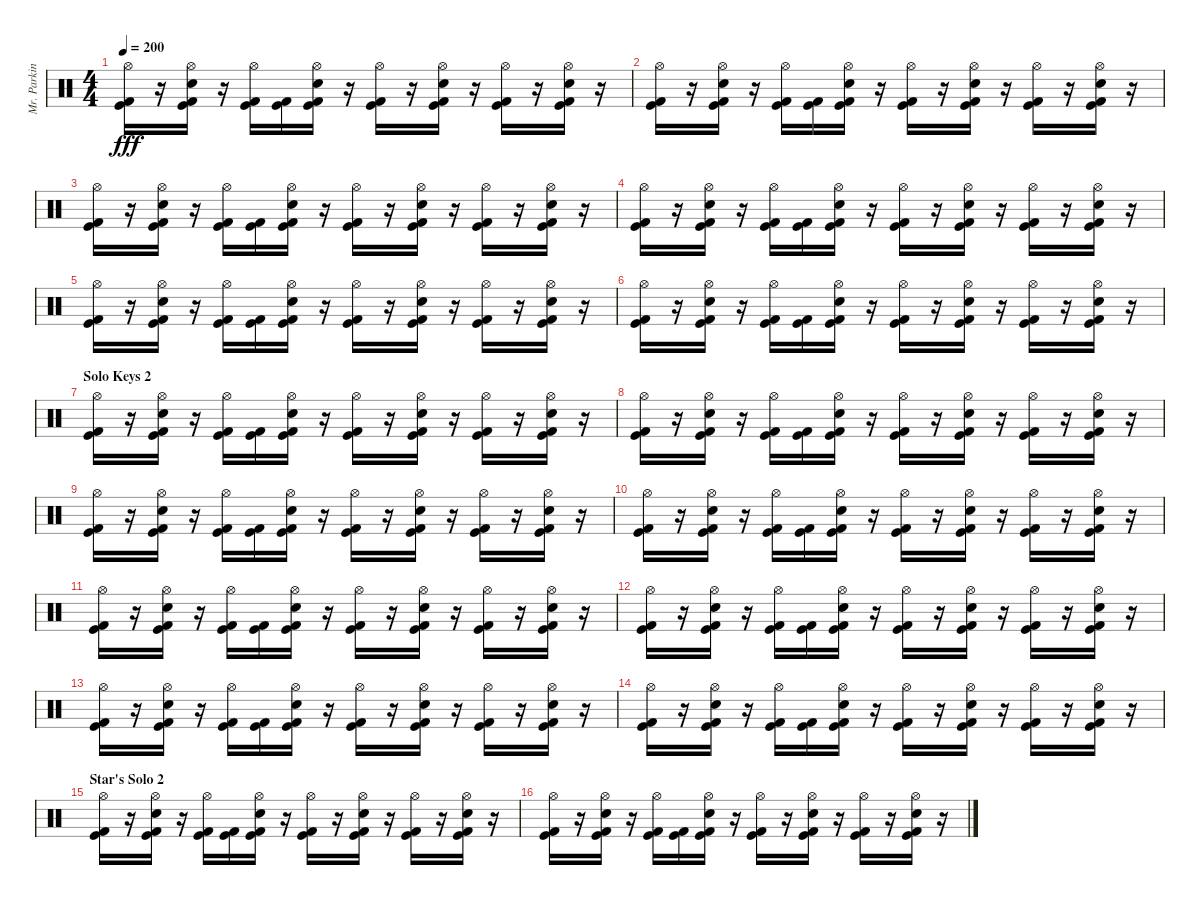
\track ("Mr. Parkinson" "Mr. Parkin") {instrument percussion}
\staff {score}
\articulation defaults
\ts (4 4)
\tempo 200
\clef neutral
\ks c
("Hi-Hat (open)" "Kick (hit)" "Kick (hit) 2").16{dy fff} r.16 ("Hi-Hat (open)" "Electric Snare (hit)" "Kick (hit)" "Kick (hit) 2").16 r.16 ("Hi-Hat (open)" "Kick (hit)" "Kick (hit) 2").16 ("Kick (hit)" "Kick (hit) 2").16 ("Hi-Hat (open)" "Electric Snare (hit)" "Kick (hit)" "Kick (hit) 2").16 r.16 ("Hi-Hat (open)" "Kick (hit)" "Kick (hit) 2").16 r.16 ("Hi-Hat (open)" "Electric Snare (hit)" "Kick (hit)" "Kick (hit) 2").16 r.16 ("Hi-Hat (open)" "Kick (hit)" "Kick (hit) 2").16 r.16 ("Hi-Hat (open)" "Electric Snare (hit)" "Kick (hit)" "Kick (hit) 2").16 r.16 |
("Hi-Hat (open)" "Kick (hit)" "Kick (hit) 2").16 r.16 ("Hi-Hat (open)" "Electric Snare (hit)" "Kick (hit)" "Kick (hit) 2").16 r.16 ("Hi-Hat (open)" "Kick (hit)" "Kick (hit) 2").16 ("Kick (hit)" "Kick (hit) 2").16 ("Hi-Hat (open)" "Electric Snare (hit)" "Kick (hit)" "Kick (hit) 2").16 r.16 ("Hi-Hat (open)" "Kick (hit)" "Kick (hit) 2").16 r.16 ("Hi-Hat (open)" "Electric Snare (hit)" "Kick (hit)" "Kick (hit) 2").16 r.16 ("Hi-Hat (open)" "Kick (hit)" "Kick (hit) 2").16 r.16 ("Hi-Hat (open)" "Electric Snare (hit)" "Kick (hit)" "Kick (hit) 2").16 r.16 |
("Hi-Hat (open)" "Kick (hit)" "Kick (hit) 2").16 r.16 ("Hi-Hat (open)" "Electric Snare (hit)" "Kick (hit)" "Kick (hit) 2").16 r.16 ("Hi-Hat (open)" "Kick (hit)" "Kick (hit) 2").16 ("Kick (hit)" "Kick (hit) 2").16 ("Hi-Hat (open)" "Electric Snare (hit)" "Kick (hit)" "Kick (hit) 2").16 r.16 ("Hi-Hat (open)" "Kick (hit)" "Kick (hit) 2").16 r.16 ("Hi-Hat (open)" "Electric Snare (hit)" "Kick (hit)" "Kick (hit) 2").16 r.16 ("Hi-Hat (open)" "Kick (hit)" "Kick (hit) 2").16 r.16 ("Hi-Hat (open)" "Electric Snare (hit)" "Kick (hit)" "Kick (hit) 2").16 r.16 |
("Hi-Hat (open)" "Kick (hit)" "Kick (hit) 2").16 r.16 ("Hi-Hat (open)" "Electric Snare (hit)" "Kick (hit)" "Kick (hit) 2").16 r.16 ("Hi-Hat (open)" "Kick (hit)" "Kick (hit) 2").16 ("Kick (hit)" "Kick (hit) 2").16 ("Hi-Hat (open)" "Electric Snare (hit)" "Kick (hit)" "Kick (hit) 2").16 r.16 ("Hi-Hat (open)" "Kick (hit)" "Kick (hit) 2").16 r.16 ("Hi-Hat (open)" "Electric Snare (hit)" "Kick (hit)" "Kick (hit) 2").16 r.16 ("Hi-Hat (open)" "Kick (hit)" "Kick (hit) 2").16 r.16 ("Hi-Hat (open)" "Electric Snare (hit)" "Kick (hit)" "Kick (hit) 2").16 r.16 |
("Hi-Hat (open)" "Kick (hit)" "Kick (hit) 2").16 r.16 ("Hi-Hat (open)" "Electric Snare (hit)" "Kick (hit)" "Kick (hit) 2").16 r.16 ("Hi-Hat (open)" "Kick (hit)" "Kick (hit) 2").16 ("Kick (hit)" "Kick (hit) 2").16 ("Hi-Hat (open)" "Electric Snare (hit)" "Kick (hit)" "Kick (hit) 2").16 r.16 ("Hi-Hat (open)" "Kick (hit)" "Kick (hit) 2").16 r.16 ("Hi-Hat (open)" "Electric Snare (hit)" "Kick (hit)" "Kick (hit) 2").16 r.16 ("Hi-Hat (open)" "Kick (hit)" "Kick (hit) 2").16 r.16 ("Hi-Hat (open)" "Electric Snare (hit)" "Kick (hit)" "Kick (hit) 2").16 r.16 |
("Hi-Hat (open)" "Kick (hit)" "Kick (hit) 2").16 r.16 ("Hi-Hat (open)" "Electric Snare (hit)" "Kick (hit)" "Kick (hit) 2").16 r.16 ("Hi-Hat (open)" "Kick (hit)" "Kick (hit) 2").16 ("Kick (hit)" "Kick (hit) 2").16 ("Hi-Hat (open)" "Electric Snare (hit)" "Kick (hit)" "Kick (hit) 2").16 r.16 ("Hi-Hat (open)" "Kick (hit)" "Kick (hit) 2").16 r.16 ("Hi-Hat (open)" "Electric Snare (hit)" "Kick (hit)" "Kick (hit) 2").16 r.16 ("Hi-Hat (open)" "Kick (hit)" "Kick (hit) 2").16 r.16 ("Hi-Hat (open)" "Electric Snare (hit)" "Kick (hit)" "Kick (hit) 2").16 r.16 |
\section ("" "Solo Keys 2")
("Hi-Hat (open)" "Kick (hit)" "Kick (hit) 2").16 r.16 ("Hi-Hat (open)" "Electric Snare (hit)" "Kick (hit)" "Kick (hit) 2").16 r.16 ("Hi-Hat (open)" "Kick (hit)" "Kick (hit) 2").16 ("Kick (hit)" "Kick (hit) 2").16 ("Hi-Hat (open)" "Electric Snare (hit)" "Kick (hit)" "Kick (hit) 2").16 r.16 ("Hi-Hat (open)" "Kick (hit)" "Kick (hit) 2").16 r.16 ("Hi-Hat (open)" "Electric Snare (hit)" "Kick (hit)" "Kick (hit) 2").16 r.16 ("Hi-Hat (open)" "Kick (hit)" "Kick (hit) 2").16 r.16 ("Hi-Hat (open)" "Electric Snare (hit)" "Kick (hit)" "Kick (hit) 2").16 r.16 |
("Hi-Hat (open)" "Kick (hit)" "Kick (hit) 2").16 r.16 ("Hi-Hat (open)" "Electric Snare (hit)" "Kick (hit)" "Kick (hit) 2").16 r.16 ("Hi-Hat (open)" "Kick (hit)" "Kick (hit) 2").16 ("Kick (hit)" "Kick (hit) 2").16 ("Hi-Hat (open)" "Electric Snare (hit)" "Kick (hit)" "Kick (hit) 2").16 r.16 ("Hi-Hat (open)" "Kick (hit)" "Kick (hit) 2").16 r.16 ("Hi-Hat (open)" "Electric Snare (hit)" "Kick (hit)" "Kick (hit) 2").16 r.16 ("Hi-Hat (open)" "Kick (hit)" "Kick (hit) 2").16 r.16 ("Hi-Hat (open)" "Electric Snare (hit)" "Kick (hit)" "Kick (hit) 2").16 r.16 |
("Hi-Hat (open)" "Kick (hit)" "Kick (hit) 2").16 r.16 ("Hi-Hat (open)" "Electric Snare (hit)" "Kick (hit)" "Kick (hit) 2").16 r.16 ("Hi-Hat (open)" "Kick (hit)" "Kick (hit) 2").16 ("Kick (hit)" "Kick (hit) 2").16 ("Hi-Hat (open)" "Electric Snare (hit)" "Kick (hit)" "Kick (hit) 2").16 r.16 ("Hi-Hat (open)" "Kick (hit)" "Kick (hit) 2").16 r.16 ("Hi-Hat (open)" "Electric Snare (hit)" "Kick (hit)" "Kick (hit) 2").16 r.16 ("Hi-Hat (open)" "Kick (hit)" "Kick (hit) 2").16 r.16 ("Hi-Hat (open)" "Electric Snare (hit)" "Kick (hit)" "Kick (hit) 2").16 r.16 |
("Hi-Hat (open)" "Kick (hit)" "Kick (hit) 2").16 r.16 ("Hi-Hat (open)" "Electric Snare (hit)" "Kick (hit)" "Kick (hit) 2").16 r.16 ("Hi-Hat (open)" "Kick (hit)" "Kick (hit) 2").16 ("Kick (hit)" "Kick (hit) 2").16 ("Hi-Hat (open)" "Electric Snare (hit)" "Kick (hit)" "Kick (hit) 2").16 r.16 ("Hi-Hat (open)" "Kick (hit)" "Kick (hit) 2").16 r.16 ("Hi-Hat (open)" "Electric Snare (hit)" "Kick (hit)" "Kick (hit) 2").16 r.16 ("Hi-Hat (open)" "Kick (hit)" "Kick (hit) 2").16 r.16 ("Hi-Hat (open)" "Electric Snare (hit)" "Kick (hit)" "Kick (hit) 2").16 r.16 |
("Hi-Hat (open)" "Kick (hit)" "Kick (hit) 2").16 r.16 ("Hi-Hat (open)" "Electric Snare (hit)" "Kick (hit)" "Kick (hit) 2").16 r.16 ("Hi-Hat (open)" "Kick (hit)" "Kick (hit) 2").16 ("Kick (hit)" "Kick (hit) 2").16 ("Hi-Hat (open)" "Electric Snare (hit)" "Kick (hit)" "Kick (hit) 2").16 r.16 ("Hi-Hat (open)" "Kick (hit)" "Kick (hit) 2").16 r.16 ("Hi-Hat (open)" "Electric Snare (hit)" "Kick (hit)" "Kick (hit) 2").16 r.16 ("Hi-Hat (open)" "Kick (hit)" "Kick (hit) 2").16 r.16 ("Hi-Hat (open)" "Electric Snare (hit)" "Kick (hit)" "Kick (hit) 2").16 r.16 |
("Hi-Hat (open)" "Kick (hit)" "Kick (hit) 2").16 r.16 ("Hi-Hat (open)" "Electric Snare (hit)" "Kick (hit)" "Kick (hit) 2").16 r.16 ("Hi-Hat (open)" "Kick (hit)" "Kick (hit) 2").16 ("Kick (hit)" "Kick (hit) 2").16 ("Hi-Hat (open)" "Electric Snare (hit)" "Kick (hit)" "Kick (hit) 2").16 r.16 ("Hi-Hat (open)" "Kick (hit)" "Kick (hit) 2").16 r.16 ("Hi-Hat (open)" "Electric Snare (hit)" "Kick (hit)" "Kick (hit) 2").16 r.16 ("Hi-Hat (open)" "Kick (hit)" "Kick (hit) 2").16 r.16 ("Hi-Hat (open)" "Electric Snare (hit)" "Kick (hit)" "Kick (hit) 2").16 r.16 |
("Hi-Hat (open)" "Kick (hit)" "Kick (hit) 2").16 r.16 ("Hi-Hat (open)" "Electric Snare (hit)" "Kick (hit)" "Kick (hit) 2").16 r.16 ("Hi-Hat (open)" "Kick (hit)" "Kick (hit) 2").16 ("Kick (hit)" "Kick (hit) 2").16 ("Hi-Hat (open)" "Electric Snare (hit)" "Kick (hit)" "Kick (hit) 2").16 r.16 ("Hi-Hat (open)" "Kick (hit)" "Kick (hit) 2").16 r.16 ("Hi-Hat (open)" "Electric Snare (hit)" "Kick (hit)" "Kick (hit) 2").16 r.16 ("Hi-Hat (open)" "Kick (hit)" "Kick (hit) 2").16 r.16 ("Hi-Hat (open)" "Electric Snare (hit)" "Kick (hit)" "Kick (hit) 2").16 r.16 |
("Hi-Hat (open)" "Kick (hit)" "Kick (hit) 2").16 r.16 ("Hi-Hat (open)" "Electric Snare (hit)" "Kick (hit)" "Kick (hit) 2").16 r.16 ("Hi-Hat (open)" "Kick (hit)" "Kick (hit) 2").16 ("Kick (hit)" "Kick (hit) 2").16 ("Hi-Hat (open)" "Electric Snare (hit)" "Kick (hit)" "Kick (hit) 2").16 r.16 ("Hi-Hat (open)" "Kick (hit)" "Kick (hit) 2").16 r.16 ("Hi-Hat (open)" "Electric Snare (hit)" "Kick (hit)" "Kick (hit) 2").16 r.16 ("Hi-Hat (open)" "Kick (hit)" "Kick (hit) 2").16 r.16 ("Hi-Hat (open)" "Electric Snare (hit)" "Kick (hit)" "Kick (hit) 2").16 r.16 |
\section ("" "Star's Solo 2")
("Hi-Hat (open)" "Kick (hit)" "Kick (hit) 2").16 r.16 ("Hi-Hat (open)" "Electric Snare (hit)" "Kick (hit)" "Kick (hit) 2").16 r.16 ("Hi-Hat (open)" "Kick (hit)" "Kick (hit) 2").16 ("Kick (hit)" "Kick (hit) 2").16 ("Hi-Hat (open)" "Electric Snare (hit)" "Kick (hit)" "Kick (hit) 2").16 r.16 ("Hi-Hat (open)" "Kick (hit)" "Kick (hit) 2").16 r.16 ("Hi-Hat (open)" "Electric Snare (hit)" "Kick (hit)" "Kick (hit) 2").16 r.16 ("Hi-Hat (open)" "Kick (hit)" "Kick (hit) 2").16 r.16 ("Hi-Hat (open)" "Electric Snare (hit)" "Kick (hit)" "Kick (hit) 2").16 r.16 |
("Hi-Hat (open)" "Kick (hit)" "Kick (hit) 2").16 r.16 ("Hi-Hat (open)" "Electric Snare (hit)" "Kick (hit)" "Kick (hit) 2").16 r.16 ("Hi-Hat (open)" "Kick (hit)" "Kick (hit) 2").16 ("Kick (hit)" "Kick (hit) 2").16 ("Hi-Hat (open)" "Electric Snare (hit)" "Kick (hit)" "Kick (hit) 2").16 r.16 ("Hi-Hat (open)" "Kick (hit)" "Kick (hit) 2").16 r.16 ("Hi-Hat (open)" "Electric Snare (hit)" "Kick (hit)" "Kick (hit) 2").16 r.16 ("Hi-Hat (open)" "Kick (hit)" "Kick (hit) 2").16 r.16 ("Hi-Hat (open)" "Electric Snare (hit)" "Kick (hit)" "Kick (hit) 2").16 r.16
